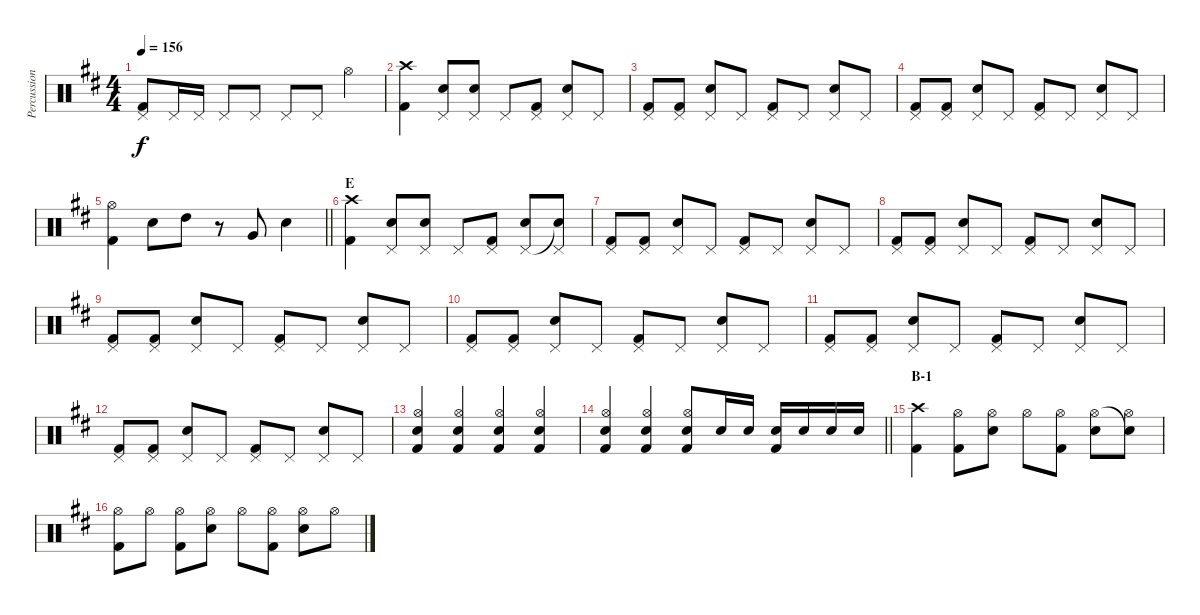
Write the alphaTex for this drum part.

\track ("Percussion" "Percussion") {instrument percussion}
\staff {score}
\articulation defaults
\ts (4 4)
\tempo 156
\clef neutral
\ks d
("Pedal Hi-Hat (hit)" "Kick (hit) 2").8{dy f} "Pedal Hi-Hat (hit)".16 "Pedal Hi-Hat (hit)".16 "Pedal Hi-Hat (hit)".8 "Pedal Hi-Hat (hit)".8 "Pedal Hi-Hat (hit)".8 "Pedal Hi-Hat (hit)".8 "Hi-Hat (open)".4 |
("Crash high (hit)" "Kick (hit) 2").4 ("Pedal Hi-Hat (hit)" "Electric Snare (hit)").8 ("Pedal Hi-Hat (hit)" "Electric Snare (hit)").8 "Pedal Hi-Hat (hit)".8 ("Pedal Hi-Hat (hit)" "Kick (hit) 2").8 ("Pedal Hi-Hat (hit)" "Electric Snare (hit)").8 "Pedal Hi-Hat (hit)".8 |
("Pedal Hi-Hat (hit)" "Kick (hit) 2").8 ("Pedal Hi-Hat (hit)" "Kick (hit) 2").8 ("Pedal Hi-Hat (hit)" "Electric Snare (hit)").8 "Pedal Hi-Hat (hit)".8 ("Pedal Hi-Hat (hit)" "Kick (hit) 2").8 "Pedal Hi-Hat (hit)".8 ("Pedal Hi-Hat (hit)" "Electric Snare (hit)").8 "Pedal Hi-Hat (hit)".8 |
("Pedal Hi-Hat (hit)" "Kick (hit) 2").8 ("Pedal Hi-Hat (hit)" "Kick (hit) 2").8 ("Pedal Hi-Hat (hit)" "Electric Snare (hit)").8 "Pedal Hi-Hat (hit)".8 ("Pedal Hi-Hat (hit)" "Kick (hit) 2").8 "Pedal Hi-Hat (hit)".8 ("Pedal Hi-Hat (hit)" "Electric Snare (hit)").8 "Pedal Hi-Hat (hit)".8 |
\barLineRight lightlight
("Hi-Hat (open)" "Kick (hit) 2").4 "Electric Snare (hit)".8 "High Tom (hit)".8 r.8 "Very Low Tom (hit)".8 "Electric Snare (hit)".4 |
\section ("" "E")
("Crash high (hit)" "Kick (hit) 2").4 ("Pedal Hi-Hat (hit)" "Electric Snare (hit)").8 ("Pedal Hi-Hat (hit)" "Electric Snare (hit)").8 "Pedal Hi-Hat (hit)".8 ("Pedal Hi-Hat (hit)" "Kick (hit) 2").8 ("Pedal Hi-Hat (hit)" "Electric Snare (hit)").8 ("Snare (hit)"{t} "Pedal Hi-Hat (hit)").8 |
("Pedal Hi-Hat (hit)" "Kick (hit) 2").8 ("Pedal Hi-Hat (hit)" "Kick (hit) 2").8 ("Pedal Hi-Hat (hit)" "Electric Snare (hit)").8 "Pedal Hi-Hat (hit)".8 ("Pedal Hi-Hat (hit)" "Kick (hit) 2").8 "Pedal Hi-Hat (hit)".8 ("Pedal Hi-Hat (hit)" "Electric Snare (hit)").8 "Pedal Hi-Hat (hit)".8 |
("Pedal Hi-Hat (hit)" "Kick (hit) 2").8 ("Pedal Hi-Hat (hit)" "Kick (hit) 2").8 ("Pedal Hi-Hat (hit)" "Electric Snare (hit)").8 "Pedal Hi-Hat (hit)".8 ("Pedal Hi-Hat (hit)" "Kick (hit) 2").8 "Pedal Hi-Hat (hit)".8 ("Pedal Hi-Hat (hit)" "Electric Snare (hit)").8 "Pedal Hi-Hat (hit)".8 |
("Pedal Hi-Hat (hit)" "Kick (hit) 2").8 ("Pedal Hi-Hat (hit)" "Kick (hit) 2").8 ("Pedal Hi-Hat (hit)" "Electric Snare (hit)").8 "Pedal Hi-Hat (hit)".8 ("Pedal Hi-Hat (hit)" "Kick (hit) 2").8 "Pedal Hi-Hat (hit)".8 ("Pedal Hi-Hat (hit)" "Electric Snare (hit)").8 "Pedal Hi-Hat (hit)".8 |
("Pedal Hi-Hat (hit)" "Kick (hit) 2").8 ("Pedal Hi-Hat (hit)" "Kick (hit) 2").8 ("Pedal Hi-Hat (hit)" "Electric Snare (hit)").8 "Pedal Hi-Hat (hit)".8 ("Pedal Hi-Hat (hit)" "Kick (hit) 2").8 "Pedal Hi-Hat (hit)".8 ("Pedal Hi-Hat (hit)" "Electric Snare (hit)").8 "Pedal Hi-Hat (hit)".8 |
("Pedal Hi-Hat (hit)" "Kick (hit) 2").8 ("Pedal Hi-Hat (hit)" "Kick (hit) 2").8 ("Pedal Hi-Hat (hit)" "Electric Snare (hit)").8 "Pedal Hi-Hat (hit)".8 ("Pedal Hi-Hat (hit)" "Kick (hit) 2").8 "Pedal Hi-Hat (hit)".8 ("Pedal Hi-Hat (hit)" "Electric Snare (hit)").8 "Pedal Hi-Hat (hit)".8 |
("Pedal Hi-Hat (hit)" "Kick (hit) 2").8 ("Pedal Hi-Hat (hit)" "Kick (hit) 2").8 ("Pedal Hi-Hat (hit)" "Electric Snare (hit)").8 "Pedal Hi-Hat (hit)".8 ("Pedal Hi-Hat (hit)" "Kick (hit) 2").8 "Pedal Hi-Hat (hit)".8 ("Pedal Hi-Hat (hit)" "Electric Snare (hit)").8 "Pedal Hi-Hat (hit)".8 |
("Hi-Hat (open)" "Electric Snare (hit)" "Kick (hit) 2").4 ("Hi-Hat (open)" "Electric Snare (hit)" "Kick (hit) 2").4 ("Hi-Hat (open)" "Electric Snare (hit)" "Kick (hit) 2").4 ("Hi-Hat (open)" "Electric Snare (hit)" "Kick (hit) 2").4 |
\barLineRight lightlight
("Hi-Hat (open)" "Electric Snare (hit)" "Kick (hit) 2").4 ("Hi-Hat (open)" "Electric Snare (hit)" "Kick (hit) 2").4 ("Hi-Hat (open)" "Electric Snare (hit)" "Kick (hit) 2").8 "Electric Snare (hit)".16 "Electric Snare (hit)".16 ("Electric Snare (hit)" "Kick (hit) 2").16 "Electric Snare (hit)".16 "Electric Snare (hit)".16 "Electric Snare (hit)".16 |
\section ("" "B-1")
("Crash high (hit)" "Kick (hit) 2").4 ("Hi-Hat (open)" "Kick (hit) 2").8 ("Hi-Hat (open)" "Electric Snare (hit)").8 "Hi-Hat (open)".8 ("Hi-Hat (open)" "Kick (hit) 2").8 ("Hi-Hat (open)" "Electric Snare (hit)").8 ("Snare (hit)"{t} "Hi-Hat (open)").8 |
("Hi-Hat (open)" "Kick (hit) 2").8 "Hi-Hat (open)".8 ("Hi-Hat (open)" "Kick (hit) 2").8 ("Hi-Hat (open)" "Electric Snare (hit)").8 "Hi-Hat (open)".8 ("Hi-Hat (open)" "Kick (hit) 2").8 ("Hi-Hat (open)" "Electric Snare (hit)").8 "Hi-Hat (open)".8
